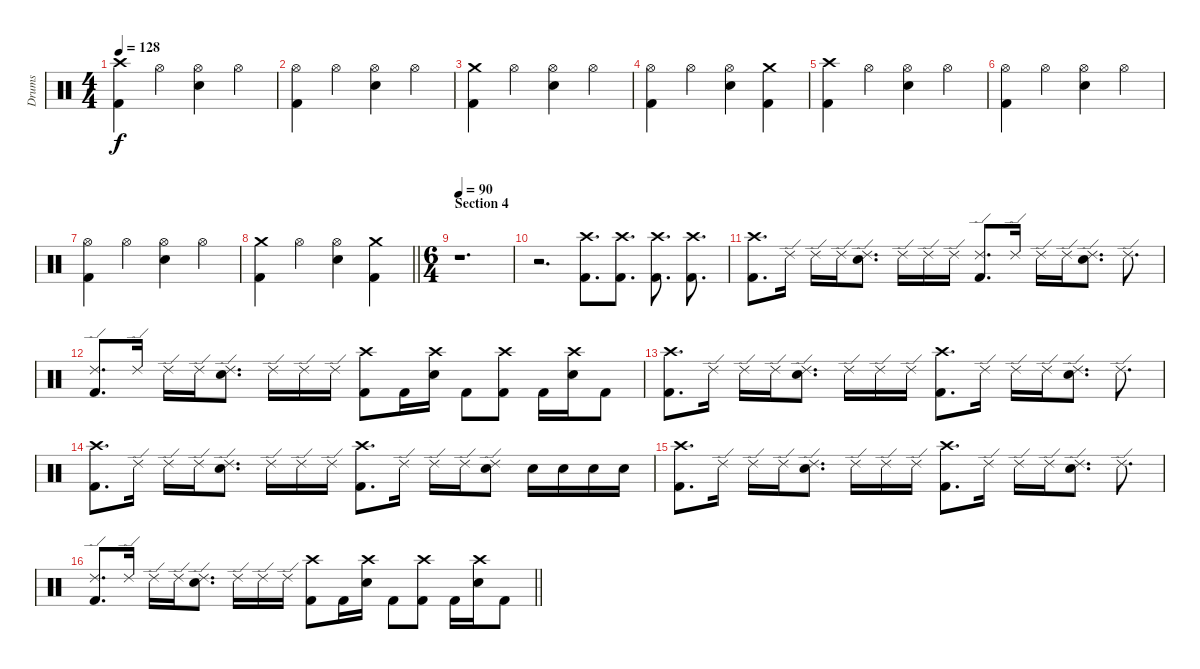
\track ("Drums" "Drums") {instrument percussion}
\staff {score}
\articulation defaults
\ts (4 4)
\tempo 128
\clef neutral
\ks c
("Crash high (hit)" "Kick (hit) 2").4{dy f} "Hi-Hat (open)".4 ("Hi-Hat (open)" "Electric Snare (hit)").4 "Hi-Hat (open)".4 |
("Hi-Hat (open)" "Kick (hit) 2").4 "Hi-Hat (open)".4 ("Hi-Hat (open)" "Electric Snare (hit)").4 "Hi-Hat (open)".4 |
("Crash medium (hit)" "Kick (hit) 2").4 "Hi-Hat (open)".4 ("Hi-Hat (open)" "Electric Snare (hit)").4 "Hi-Hat (open)".4 |
("Hi-Hat (open)" "Kick (hit) 2").4 "Hi-Hat (open)".4 ("Hi-Hat (open)" "Electric Snare (hit)").4 ("Crash medium (hit)" "Kick (hit) 2").4 |
("Crash high (hit)" "Kick (hit) 2").4 "Hi-Hat (open)".4 ("Hi-Hat (open)" "Electric Snare (hit)").4 "Hi-Hat (open)".4 |
("Hi-Hat (open)" "Kick (hit) 2").4 "Hi-Hat (open)".4 ("Hi-Hat (open)" "Electric Snare (hit)").4 "Hi-Hat (open)".4 |
("Hi-Hat (open)" "Kick (hit) 2").4 "Hi-Hat (open)".4 ("Hi-Hat (open)" "Electric Snare (hit)").4 "Hi-Hat (open)".4 |
\barLineRight lightlight
("Crash medium (hit)" "Kick (hit) 2").4 "Hi-Hat (open)".4 ("Hi-Hat (open)" "Electric Snare (hit)").4 ("Crash medium (hit)" "Kick (hit) 2").4 |
\ts (6 4)
\section ("" "Section 4")
\tempo 90
r.1{d} |
r.2{d} ("Crash high (hit)" "Kick (hit) 2").8{d} ("Crash high (hit)" "Kick (hit) 2").8{d} ("Crash high (hit)" "Kick (hit) 2").8{d} ("Crash high (hit)" "Kick (hit) 2").8{d} |
("Crash high (hit)" "Kick (hit) 2").8{d} "Ride (edge) 2".16 "Ride (edge) 2".16 "Ride (edge) 2".16 ("Ride (edge) 2" "Electric Snare (hit)").8{d} "Ride (edge) 2".16 "Ride (edge) 2".16 "Ride (edge) 2".16 ("Ride (edge) 2" "Kick (hit) 2").8{d} "Ride (edge) 2".16 "Ride (edge) 2".16 "Ride (edge) 2".16 ("Ride (edge) 2" "Electric Snare (hit)").8{d} "Ride (edge) 2".8{d} |
("Ride (edge) 2" "Kick (hit) 2").8{d} "Ride (edge) 2".16 "Ride (edge) 2".16 "Ride (edge) 2".16 ("Ride (edge) 2" "Electric Snare (hit)").8{d} "Ride (edge) 2".16 "Ride (edge) 2".16 "Ride (edge) 2".16 ("Crash high (hit)" "Kick (hit) 2").8 "Kick (hit) 2".16 ("Crash high (hit)" "Electric Snare (hit)").16 "Kick (hit) 2".8 ("Crash high (hit)" "Kick (hit) 2").8 "Kick (hit) 2".16 ("Crash high (hit)" "Electric Snare (hit)").16 "Kick (hit) 2".8 |
("Crash high (hit)" "Kick (hit) 2").8{d} "Ride (edge) 2".16 "Ride (edge) 2".16 "Ride (edge) 2".16 ("Ride (edge) 2" "Electric Snare (hit)").8{d} "Ride (edge) 2".16 "Ride (edge) 2".16 "Ride (edge) 2".16 ("Crash high (hit)" "Kick (hit) 2").8{d} "Ride (edge) 2".16 "Ride (edge) 2".16 "Ride (edge) 2".16 ("Ride (edge) 2" "Electric Snare (hit)").8{d} "Ride (edge) 2".8{d} |
("Crash high (hit)" "Kick (hit) 2").8{d} "Ride (edge) 2".16 "Ride (edge) 2".16 "Ride (edge) 2".16 ("Ride (edge) 2" "Electric Snare (hit)").8{d} "Ride (edge) 2".16 "Ride (edge) 2".16 "Ride (edge) 2".16 ("Crash high (hit)" "Kick (hit) 2").8{d} "Ride (edge) 2".16 "Ride (edge) 2".16 "Ride (edge) 2".16 ("Ride (edge) 2" "Electric Snare (hit)").8 "Electric Snare (hit)".16 "Electric Snare (hit)".16 "Electric Snare (hit)".16 "Electric Snare (hit)".16 |
("Crash high (hit)" "Kick (hit) 2").8{d} "Ride (edge) 2".16 "Ride (edge) 2".16 "Ride (edge) 2".16 ("Ride (edge) 2" "Electric Snare (hit)").8{d} "Ride (edge) 2".16 "Ride (edge) 2".16 "Ride (edge) 2".16 ("Crash high (hit)" "Kick (hit) 2").8{d} "Ride (edge) 2".16 "Ride (edge) 2".16 "Ride (edge) 2".16 ("Ride (edge) 2" "Electric Snare (hit)").8{d} "Ride (edge) 2".8{d} |
\barLineRight lightlight
("Ride (edge) 2" "Kick (hit) 2").8{d} "Ride (edge) 2".16 "Ride (edge) 2".16 "Ride (edge) 2".16 ("Ride (edge) 2" "Electric Snare (hit)").8{d} "Ride (edge) 2".16 "Ride (edge) 2".16 "Ride (edge) 2".16 ("Crash high (hit)" "Kick (hit) 2").8 "Kick (hit) 2".16 ("Crash high (hit)" "Electric Snare (hit)").16 "Kick (hit) 2".8 ("Crash high (hit)" "Kick (hit) 2").8 "Kick (hit) 2".16 ("Crash high (hit)" "Electric Snare (hit)").16 "Kick (hit) 2".8
